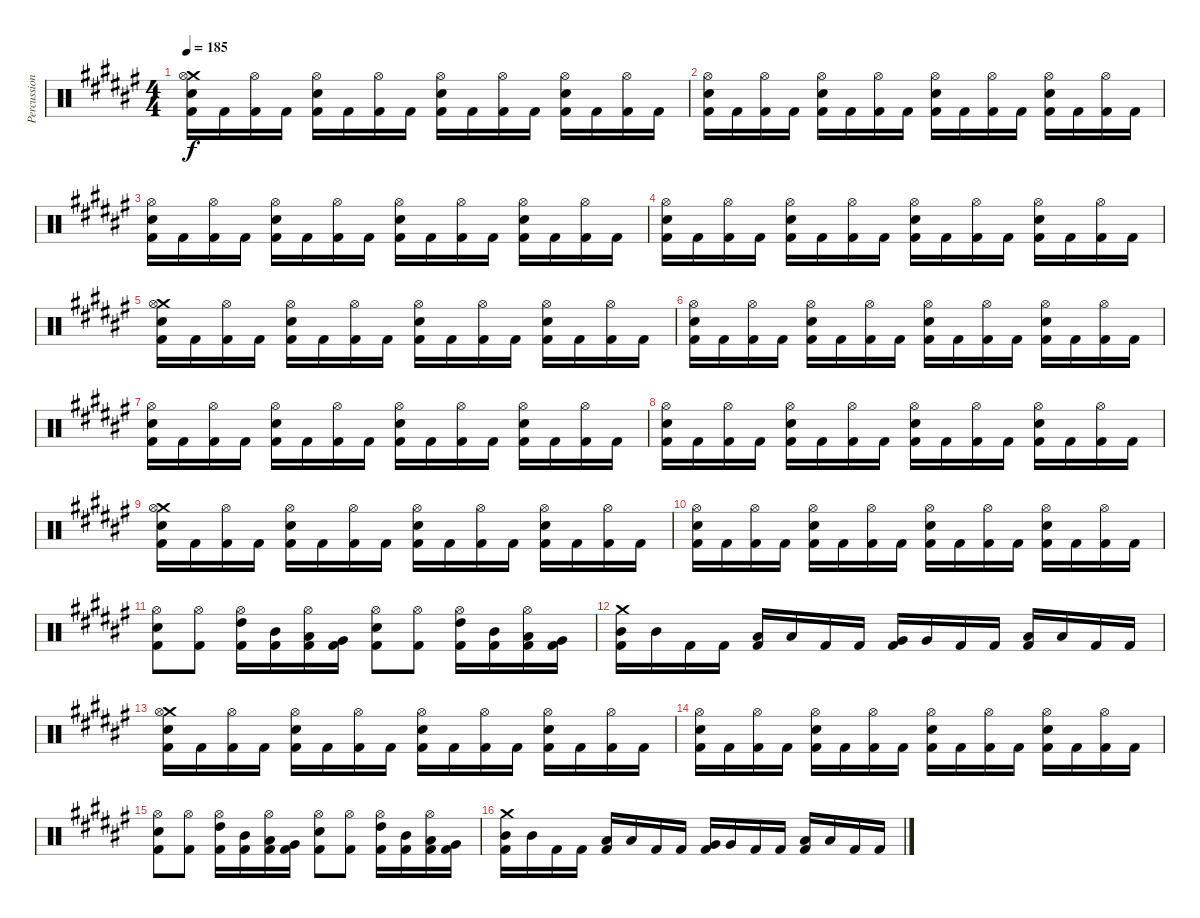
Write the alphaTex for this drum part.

\track ("Percussion" "Percussion") {instrument percussion}
\staff {score}
\articulation defaults
\ts (4 4)
\tempo 185
\clef neutral
\ks d#minor
("Crash medium (hit)" "Hi-Hat (open)" "Electric Snare (hit)" "Kick (hit) 2").16{dy f} "Kick (hit) 2".16 ("Hi-Hat (open)" "Kick (hit) 2").16 "Kick (hit) 2".16 ("Hi-Hat (open)" "Electric Snare (hit)" "Kick (hit) 2").16 "Kick (hit) 2".16 ("Hi-Hat (open)" "Kick (hit) 2").16 "Kick (hit) 2".16 ("Hi-Hat (open)" "Electric Snare (hit)" "Kick (hit) 2").16 "Kick (hit) 2".16 ("Hi-Hat (open)" "Kick (hit) 2").16 "Kick (hit) 2".16 ("Hi-Hat (open)" "Electric Snare (hit)" "Kick (hit) 2").16 "Kick (hit) 2".16 ("Hi-Hat (open)" "Kick (hit) 2").16 "Kick (hit) 2".16 |
("Hi-Hat (open)" "Electric Snare (hit)" "Kick (hit) 2").16 "Kick (hit) 2".16 ("Hi-Hat (open)" "Kick (hit) 2").16 "Kick (hit) 2".16 ("Hi-Hat (open)" "Electric Snare (hit)" "Kick (hit) 2").16 "Kick (hit) 2".16 ("Hi-Hat (open)" "Kick (hit) 2").16 "Kick (hit) 2".16 ("Hi-Hat (open)" "Electric Snare (hit)" "Kick (hit) 2").16 "Kick (hit) 2".16 ("Hi-Hat (open)" "Kick (hit) 2").16 "Kick (hit) 2".16 ("Hi-Hat (open)" "Electric Snare (hit)" "Kick (hit) 2").16 "Kick (hit) 2".16 ("Hi-Hat (open)" "Kick (hit) 2").16 "Kick (hit) 2".16 |
("Hi-Hat (open)" "Electric Snare (hit)" "Kick (hit) 2").16 "Kick (hit) 2".16 ("Hi-Hat (open)" "Kick (hit) 2").16 "Kick (hit) 2".16 ("Hi-Hat (open)" "Electric Snare (hit)" "Kick (hit) 2").16 "Kick (hit) 2".16 ("Hi-Hat (open)" "Kick (hit) 2").16 "Kick (hit) 2".16 ("Hi-Hat (open)" "Electric Snare (hit)" "Kick (hit) 2").16 "Kick (hit) 2".16 ("Hi-Hat (open)" "Kick (hit) 2").16 "Kick (hit) 2".16 ("Hi-Hat (open)" "Electric Snare (hit)" "Kick (hit) 2").16 "Kick (hit) 2".16 ("Hi-Hat (open)" "Kick (hit) 2").16 "Kick (hit) 2".16 |
("Hi-Hat (open)" "Electric Snare (hit)" "Kick (hit) 2").16 "Kick (hit) 2".16 ("Hi-Hat (open)" "Kick (hit) 2").16 "Kick (hit) 2".16 ("Hi-Hat (open)" "Electric Snare (hit)" "Kick (hit) 2").16 "Kick (hit) 2".16 ("Hi-Hat (open)" "Kick (hit) 2").16 "Kick (hit) 2".16 ("Hi-Hat (open)" "Electric Snare (hit)" "Kick (hit) 2").16 "Kick (hit) 2".16 ("Hi-Hat (open)" "Kick (hit) 2").16 "Kick (hit) 2".16 ("Hi-Hat (open)" "Electric Snare (hit)" "Kick (hit) 2").16 "Kick (hit) 2".16 ("Hi-Hat (open)" "Kick (hit) 2").16 "Kick (hit) 2".16 |
("Crash medium (hit)" "Hi-Hat (open)" "Electric Snare (hit)" "Kick (hit) 2").16 "Kick (hit) 2".16 ("Hi-Hat (open)" "Kick (hit) 2").16 "Kick (hit) 2".16 ("Hi-Hat (open)" "Electric Snare (hit)" "Kick (hit) 2").16 "Kick (hit) 2".16 ("Hi-Hat (open)" "Kick (hit) 2").16 "Kick (hit) 2".16 ("Hi-Hat (open)" "Electric Snare (hit)" "Kick (hit) 2").16 "Kick (hit) 2".16 ("Hi-Hat (open)" "Kick (hit) 2").16 "Kick (hit) 2".16 ("Hi-Hat (open)" "Electric Snare (hit)" "Kick (hit) 2").16 "Kick (hit) 2".16 ("Hi-Hat (open)" "Kick (hit) 2").16 "Kick (hit) 2".16 |
("Hi-Hat (open)" "Electric Snare (hit)" "Kick (hit) 2").16 "Kick (hit) 2".16 ("Hi-Hat (open)" "Kick (hit) 2").16 "Kick (hit) 2".16 ("Hi-Hat (open)" "Electric Snare (hit)" "Kick (hit) 2").16 "Kick (hit) 2".16 ("Hi-Hat (open)" "Kick (hit) 2").16 "Kick (hit) 2".16 ("Hi-Hat (open)" "Electric Snare (hit)" "Kick (hit) 2").16 "Kick (hit) 2".16 ("Hi-Hat (open)" "Kick (hit) 2").16 "Kick (hit) 2".16 ("Hi-Hat (open)" "Electric Snare (hit)" "Kick (hit) 2").16 "Kick (hit) 2".16 ("Hi-Hat (open)" "Kick (hit) 2").16 "Kick (hit) 2".16 |
("Hi-Hat (open)" "Electric Snare (hit)" "Kick (hit) 2").16 "Kick (hit) 2".16 ("Hi-Hat (open)" "Kick (hit) 2").16 "Kick (hit) 2".16 ("Hi-Hat (open)" "Electric Snare (hit)" "Kick (hit) 2").16 "Kick (hit) 2".16 ("Hi-Hat (open)" "Kick (hit) 2").16 "Kick (hit) 2".16 ("Hi-Hat (open)" "Electric Snare (hit)" "Kick (hit) 2").16 "Kick (hit) 2".16 ("Hi-Hat (open)" "Kick (hit) 2").16 "Kick (hit) 2".16 ("Hi-Hat (open)" "Electric Snare (hit)" "Kick (hit) 2").16 "Kick (hit) 2".16 ("Hi-Hat (open)" "Kick (hit) 2").16 "Kick (hit) 2".16 |
("Hi-Hat (open)" "Electric Snare (hit)" "Kick (hit) 2").16 "Kick (hit) 2".16 ("Hi-Hat (open)" "Kick (hit) 2").16 "Kick (hit) 2".16 ("Hi-Hat (open)" "Electric Snare (hit)" "Kick (hit) 2").16 "Kick (hit) 2".16 ("Hi-Hat (open)" "Kick (hit) 2").16 "Kick (hit) 2".16 ("Hi-Hat (open)" "Electric Snare (hit)" "Kick (hit) 2").16 "Kick (hit) 2".16 ("Hi-Hat (open)" "Kick (hit) 2").16 "Kick (hit) 2".16 ("Hi-Hat (open)" "Electric Snare (hit)" "Kick (hit) 2").16 "Kick (hit) 2".16 ("Hi-Hat (open)" "Kick (hit) 2").16 "Kick (hit) 2".16 |
("Crash medium (hit)" "Hi-Hat (open)" "Electric Snare (hit)" "Kick (hit) 2").16 "Kick (hit) 2".16 ("Hi-Hat (open)" "Kick (hit) 2").16 "Kick (hit) 2".16 ("Hi-Hat (open)" "Electric Snare (hit)" "Kick (hit) 2").16 "Kick (hit) 2".16 ("Hi-Hat (open)" "Kick (hit) 2").16 "Kick (hit) 2".16 ("Hi-Hat (open)" "Electric Snare (hit)" "Kick (hit) 2").16 "Kick (hit) 2".16 ("Hi-Hat (open)" "Kick (hit) 2").16 "Kick (hit) 2".16 ("Hi-Hat (open)" "Electric Snare (hit)" "Kick (hit) 2").16 "Kick (hit) 2".16 ("Hi-Hat (open)" "Kick (hit) 2").16 "Kick (hit) 2".16 |
("Hi-Hat (open)" "Electric Snare (hit)" "Kick (hit) 2").16 "Kick (hit) 2".16 ("Hi-Hat (open)" "Kick (hit) 2").16 "Kick (hit) 2".16 ("Hi-Hat (open)" "Electric Snare (hit)" "Kick (hit) 2").16 "Kick (hit) 2".16 ("Hi-Hat (open)" "Kick (hit) 2").16 "Kick (hit) 2".16 ("Hi-Hat (open)" "Electric Snare (hit)" "Kick (hit) 2").16 "Kick (hit) 2".16 ("Hi-Hat (open)" "Kick (hit) 2").16 "Kick (hit) 2".16 ("Hi-Hat (open)" "Electric Snare (hit)" "Kick (hit) 2").16 "Kick (hit) 2".16 ("Hi-Hat (open)" "Kick (hit) 2").16 "Kick (hit) 2".16 |
("Hi-Hat (open)" "Electric Snare (hit)" "Kick (hit) 2").8 ("Hi-Hat (open)" "Kick (hit) 2").8 ("Hi-Hat (open)" "High Tom (hit)" "Kick (hit) 2").16 ("Mid Tom (hit)" "Kick (hit) 2").16 ("Hi-Hat (open)" "Low Tom (hit)" "Kick (hit) 2").16 ("Very Low Tom (hit)" "Kick (hit) 2").16 ("Hi-Hat (open)" "Electric Snare (hit)" "Kick (hit) 2").8 ("Hi-Hat (open)" "Kick (hit) 2").8 ("Hi-Hat (open)" "High Tom (hit)" "Kick (hit) 2").16 ("Mid Tom (hit)" "Kick (hit) 2").16 ("Hi-Hat (open)" "Low Tom (hit)" "Kick (hit) 2").16 ("Very Low Tom (hit)" "Kick (hit) 2").16 |
("Crash medium (hit)" "Mid Tom (hit)" "Kick (hit) 2").16 "Mid Tom (hit)".16 "Kick (hit) 2".16 "Kick (hit) 2".16 ("Low Tom (hit)" "Kick (hit) 2").16 "Low Tom (hit)".16 "Kick (hit) 2".16 "Kick (hit) 2".16 ("Very Low Tom (hit)" "Kick (hit) 2").16 "Very Low Tom (hit)".16 "Kick (hit) 2".16 "Kick (hit) 2".16 ("Low Floor Tom (hit)" "Kick (hit) 2").16 "Low Floor Tom (hit)".16 "Kick (hit) 2".16 "Kick (hit) 2".16 |
("Crash medium (hit)" "Hi-Hat (open)" "Electric Snare (hit)" "Kick (hit) 2").16 "Kick (hit) 2".16 ("Hi-Hat (open)" "Kick (hit) 2").16 "Kick (hit) 2".16 ("Hi-Hat (open)" "Electric Snare (hit)" "Kick (hit) 2").16 "Kick (hit) 2".16 ("Hi-Hat (open)" "Kick (hit) 2").16 "Kick (hit) 2".16 ("Hi-Hat (open)" "Electric Snare (hit)" "Kick (hit) 2").16 "Kick (hit) 2".16 ("Hi-Hat (open)" "Kick (hit) 2").16 "Kick (hit) 2".16 ("Hi-Hat (open)" "Electric Snare (hit)" "Kick (hit) 2").16 "Kick (hit) 2".16 ("Hi-Hat (open)" "Kick (hit) 2").16 "Kick (hit) 2".16 |
("Hi-Hat (open)" "Electric Snare (hit)" "Kick (hit) 2").16 "Kick (hit) 2".16 ("Hi-Hat (open)" "Kick (hit) 2").16 "Kick (hit) 2".16 ("Hi-Hat (open)" "Electric Snare (hit)" "Kick (hit) 2").16 "Kick (hit) 2".16 ("Hi-Hat (open)" "Kick (hit) 2").16 "Kick (hit) 2".16 ("Hi-Hat (open)" "Electric Snare (hit)" "Kick (hit) 2").16 "Kick (hit) 2".16 ("Hi-Hat (open)" "Kick (hit) 2").16 "Kick (hit) 2".16 ("Hi-Hat (open)" "Electric Snare (hit)" "Kick (hit) 2").16 "Kick (hit) 2".16 ("Hi-Hat (open)" "Kick (hit) 2").16 "Kick (hit) 2".16 |
("Hi-Hat (open)" "Electric Snare (hit)" "Kick (hit) 2").8 ("Hi-Hat (open)" "Kick (hit) 2").8 ("Hi-Hat (open)" "High Tom (hit)" "Kick (hit) 2").16 ("Mid Tom (hit)" "Kick (hit) 2").16 ("Hi-Hat (open)" "Low Tom (hit)" "Kick (hit) 2").16 ("Very Low Tom (hit)" "Kick (hit) 2").16 ("Hi-Hat (open)" "Electric Snare (hit)" "Kick (hit) 2").8 ("Hi-Hat (open)" "Kick (hit) 2").8 ("Hi-Hat (open)" "High Tom (hit)" "Kick (hit) 2").16 ("Mid Tom (hit)" "Kick (hit) 2").16 ("Hi-Hat (open)" "Low Tom (hit)" "Kick (hit) 2").16 ("Very Low Tom (hit)" "Kick (hit) 2").16 |
("Crash medium (hit)" "Mid Tom (hit)" "Kick (hit) 2").16 "Mid Tom (hit)".16 "Kick (hit) 2".16 "Kick (hit) 2".16 ("Low Tom (hit)" "Kick (hit) 2").16 "Low Tom (hit)".16 "Kick (hit) 2".16 "Kick (hit) 2".16 ("Very Low Tom (hit)" "Kick (hit) 2").16 "Very Low Tom (hit)".16 "Kick (hit) 2".16 "Kick (hit) 2".16 ("Low Floor Tom (hit)" "Kick (hit) 2").16 "Low Floor Tom (hit)".16 "Kick (hit) 2".16 "Kick (hit) 2".16
